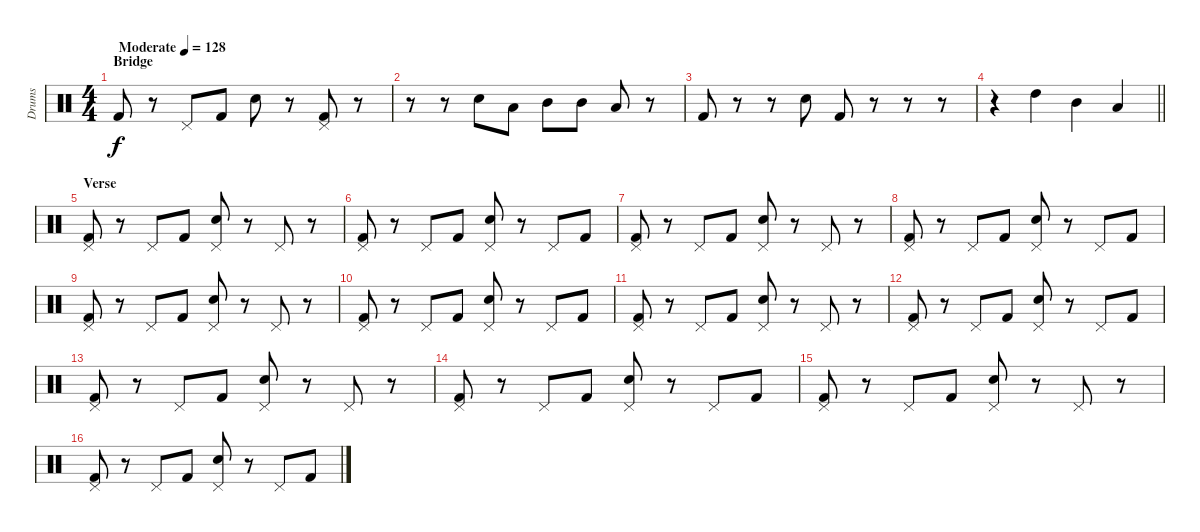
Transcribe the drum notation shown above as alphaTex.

\track ("Drums" "Drums") {instrument percussion}
\staff {score}
\articulation defaults
\ts (4 4)
\section ("" "Bridge")
\tempo (128 "Moderate")
\clef neutral
\ks c "Kick (hit) 2".8{dy f}
r.8 "Pedal Hi-Hat (hit)".8 "Kick (hit) 2".8 "Electric Snare (hit)".8 r.8 ("Pedal Hi-Hat (hit)" "Kick (hit) 2").8 r.8 |
r.8 r.8 "Electric Snare (hit)".8 "Low Tom (hit)".8 "Mid Tom (hit)".8 "Mid Tom (hit)".8 "Low Tom (hit)".8 r.8 |
"Kick (hit) 2".8 r.8 r.8 "Electric Snare (hit)".8 "Kick (hit) 2".8 r.8 r.8 r.8 |
\barLineRight lightlight
r.4 "High Tom (hit)".4 "Mid Tom (hit)".4 "Low Tom (hit)".4 |
\section ("" "Verse")
("Pedal Hi-Hat (hit)" "Kick (hit) 2").8 r.8 "Pedal Hi-Hat (hit)".8 "Kick (hit) 2".8 ("Pedal Hi-Hat (hit)" "Electric Snare (hit)").8 r.8 "Pedal Hi-Hat (hit)".8 r.8 |
("Pedal Hi-Hat (hit)" "Kick (hit) 2").8 r.8 "Pedal Hi-Hat (hit)".8 "Kick (hit) 2".8 ("Pedal Hi-Hat (hit)" "Electric Snare (hit)").8 r.8 "Pedal Hi-Hat (hit)".8 "Kick (hit) 2".8 |
("Pedal Hi-Hat (hit)" "Kick (hit) 2").8 r.8 "Pedal Hi-Hat (hit)".8 "Kick (hit) 2".8 ("Pedal Hi-Hat (hit)" "Electric Snare (hit)").8 r.8 "Pedal Hi-Hat (hit)".8 r.8 |
("Pedal Hi-Hat (hit)" "Kick (hit) 2").8 r.8 "Pedal Hi-Hat (hit)".8 "Kick (hit) 2".8 ("Pedal Hi-Hat (hit)" "Electric Snare (hit)").8 r.8 "Pedal Hi-Hat (hit)".8 "Kick (hit) 2".8 |
("Pedal Hi-Hat (hit)" "Kick (hit) 2").8 r.8 "Pedal Hi-Hat (hit)".8 "Kick (hit) 2".8 ("Pedal Hi-Hat (hit)" "Electric Snare (hit)").8 r.8 "Pedal Hi-Hat (hit)".8 r.8 |
("Pedal Hi-Hat (hit)" "Kick (hit) 2").8 r.8 "Pedal Hi-Hat (hit)".8 "Kick (hit) 2".8 ("Pedal Hi-Hat (hit)" "Electric Snare (hit)").8 r.8 "Pedal Hi-Hat (hit)".8 "Kick (hit) 2".8 |
("Pedal Hi-Hat (hit)" "Kick (hit) 2").8 r.8 "Pedal Hi-Hat (hit)".8 "Kick (hit) 2".8 ("Pedal Hi-Hat (hit)" "Electric Snare (hit)").8 r.8 "Pedal Hi-Hat (hit)".8 r.8 |
("Pedal Hi-Hat (hit)" "Kick (hit) 2").8 r.8 "Pedal Hi-Hat (hit)".8 "Kick (hit) 2".8 ("Pedal Hi-Hat (hit)" "Electric Snare (hit)").8 r.8 "Pedal Hi-Hat (hit)".8 "Kick (hit) 2".8 |
("Pedal Hi-Hat (hit)" "Kick (hit) 2").8 r.8 "Pedal Hi-Hat (hit)".8 "Kick (hit) 2".8 ("Pedal Hi-Hat (hit)" "Electric Snare (hit)").8 r.8 "Pedal Hi-Hat (hit)".8 r.8 |
("Pedal Hi-Hat (hit)" "Kick (hit) 2").8 r.8 "Pedal Hi-Hat (hit)".8 "Kick (hit) 2".8 ("Pedal Hi-Hat (hit)" "Electric Snare (hit)").8 r.8 "Pedal Hi-Hat (hit)".8 "Kick (hit) 2".8 |
("Pedal Hi-Hat (hit)" "Kick (hit) 2").8 r.8 "Pedal Hi-Hat (hit)".8 "Kick (hit) 2".8 ("Pedal Hi-Hat (hit)" "Electric Snare (hit)").8 r.8 "Pedal Hi-Hat (hit)".8 r.8 |
("Pedal Hi-Hat (hit)" "Kick (hit) 2").8 r.8 "Pedal Hi-Hat (hit)".8 "Kick (hit) 2".8 ("Pedal Hi-Hat (hit)" "Electric Snare (hit)").8 r.8 "Pedal Hi-Hat (hit)".8 "Kick (hit) 2".8
